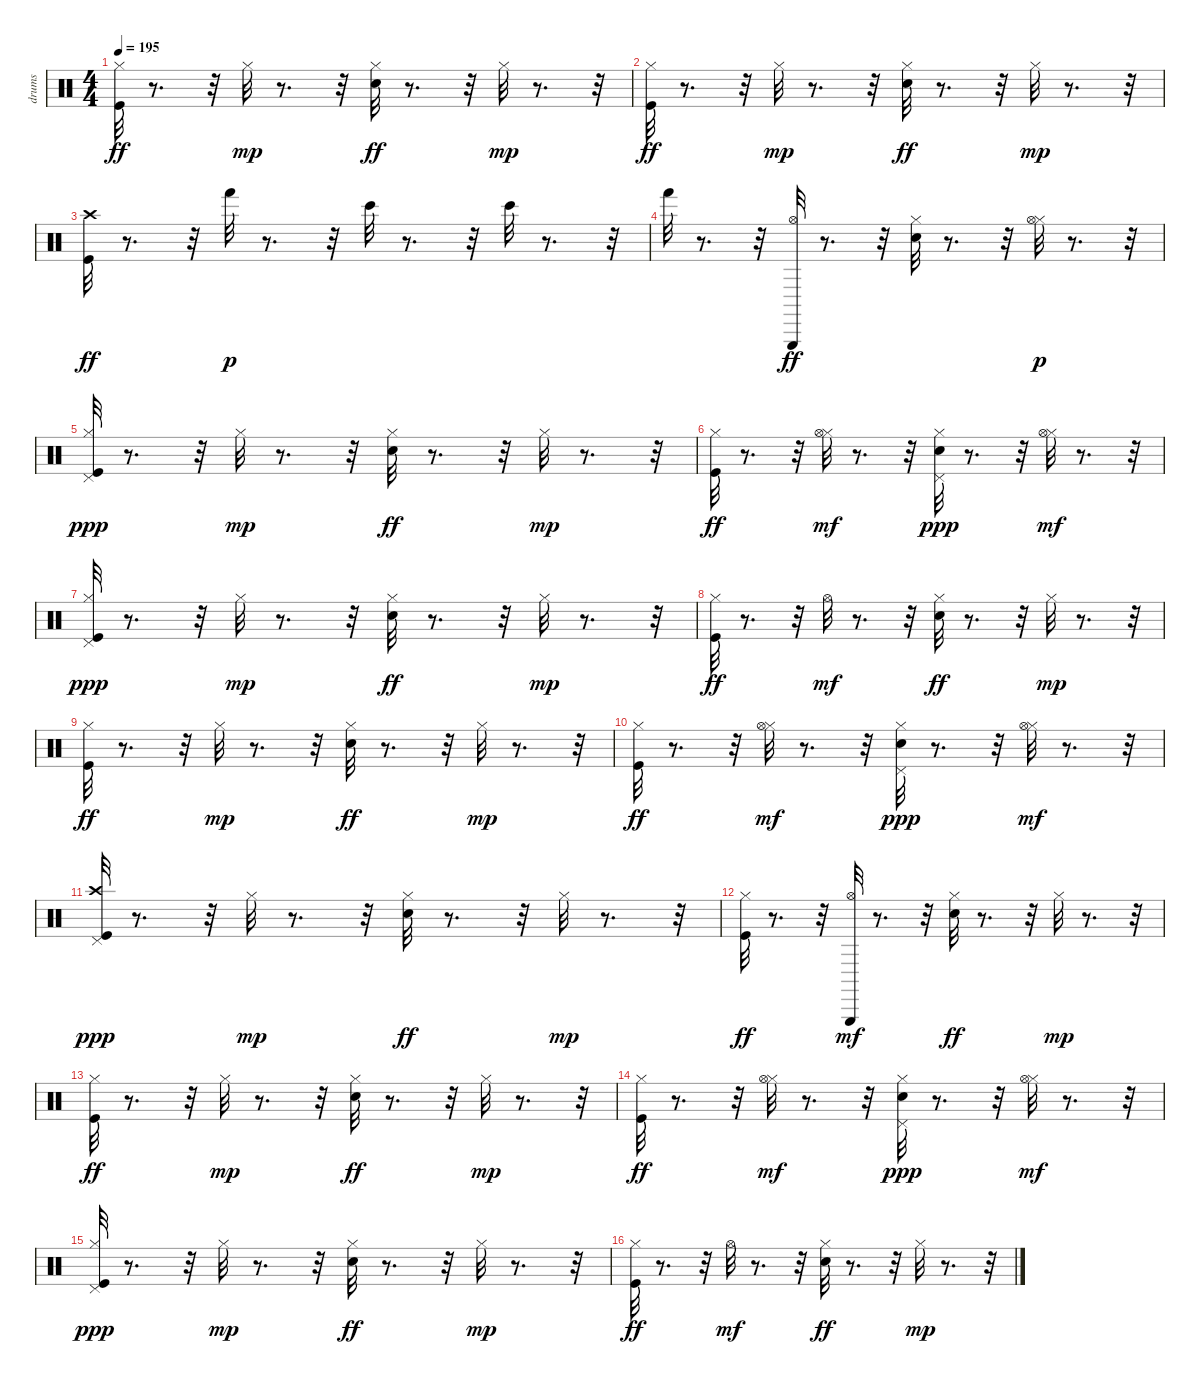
\track ("drums" "drums") {instrument percussion}
\staff {score}
\articulation defaults
\ts (4 4)
\tempo 195
\clef neutral
\ks c
("Kick (hit)" "Hi-Hat (closed)").32{dy ff} r.8{d} r.32 "Hi-Hat (closed)".32{dy mp} r.8{d} r.32 ("Snare (hit) 2" "Hi-Hat (closed)").32{dy ff} r.8{d} r.32 "Hi-Hat (closed)".32{dy mp} r.8{d} r.32 |
("Kick (hit)" "Hi-Hat (closed)").32{dy ff} r.8{d} r.32 "Hi-Hat (closed)".32{dy mp} r.8{d} r.32 ("Hi-Hat (closed)" "Snare (hit) 2").32{dy ff} r.8{d} r.32 "Hi-Hat (closed)".32{dy mp} r.8{d} r.32 |
("Crash high (hit)" "Kick (hit)").32{dy ff} r.8{d} r.32 "Hand (hit)".32{dy p} r.8{d} r.32 "Bongo High (hit)".32 r.8{d} r.32 "Bongo High (hit)".32 r.8{d} r.32 |
"Hand (hit)".32 r.8{d} r.32 ("Triangle (hit)" "Hi-Hat (open)").32{dy ff} r.8{d} r.32 ("Snare (hit) 2" "Hi-Hat (closed)").32 r.8{d} r.32 ("Hi-Hat (closed)" "Hi-Hat (open)").32{dy p} r.8{d} r.32 |
("Hi-Hat (closed)" "Kick (hit)" "Pedal Hi-Hat (hit)").32{dy ppp} r.8{d} r.32 "Hi-Hat (closed)".32{dy mp} r.8{d} r.32 ("Hi-Hat (closed)" "Snare (hit) 2").32{dy ff} r.8{d} r.32 "Hi-Hat (closed)".32{dy mp} r.8{d} r.32 |
("Hi-Hat (closed)" "Kick (hit)").32{dy ff} r.8{d} r.32 ("Hi-Hat (closed)" "Hi-Hat (open)").32{dy mf} r.8{d} r.32 ("Snare (hit) 2" "Hi-Hat (closed)" "Pedal Hi-Hat (hit)").32{dy ppp} r.8{d} r.32 ("Hi-Hat (closed)" "Hi-Hat (open)").32{dy mf} r.8{d} r.32 |
("Kick (hit)" "Hi-Hat (closed)" "Pedal Hi-Hat (hit)").32{dy ppp} r.8{d} r.32 "Hi-Hat (closed)".32{dy mp} r.8{d} r.32 ("Snare (hit) 2" "Hi-Hat (closed)").32{dy ff} r.8{d} r.32 "Hi-Hat (closed)".32{dy mp} r.8{d} r.32 |
("Hi-Hat (closed)" "Kick (hit)").32{dy ff} r.8{d} r.32 "Hi-Hat (open)".32{dy mf} r.8{d} r.32 ("Snare (hit) 2" "Hi-Hat (closed)").32{dy ff} r.8{d} r.32 "Hi-Hat (closed)".32{dy mp} r.8{d} r.32 |
("Hi-Hat (closed)" "Kick (hit)").32{dy ff} r.8{d} r.32 "Hi-Hat (closed)".32{dy mp} r.8{d} r.32 ("Hi-Hat (closed)" "Snare (hit) 2").32{dy ff} r.8{d} r.32 "Hi-Hat (closed)".32{dy mp} r.8{d} r.32 |
("Kick (hit)" "Hi-Hat (closed)").32{dy ff} r.8{d} r.32 ("Hi-Hat (closed)" "Hi-Hat (open)").32{dy mf} r.8{d} r.32 ("Hi-Hat (closed)" "Snare (hit) 2" "Pedal Hi-Hat (hit)").32{dy ppp} r.8{d} r.32 ("Hi-Hat (closed)" "Hi-Hat (open)").32{dy mf} r.8{d} r.32 |
("Kick (hit)" "Crash high (hit)" "Pedal Hi-Hat (hit)").32{dy ppp} r.8{d} r.32 "Hi-Hat (closed)".32{dy mp} r.8{d} r.32 ("Snare (hit) 2" "Hi-Hat (closed)").32{dy ff} r.8{d} r.32 "Hi-Hat (closed)".32{dy mp} r.8{d} r.32 |
("Hi-Hat (closed)" "Kick (hit)").32{dy ff} r.8{d} r.32 ("Triangle (hit)" "Hi-Hat (open)").32{dy mf} r.8{d} r.32 ("Snare (hit) 2" "Hi-Hat (closed)").32{dy ff} r.8{d} r.32 "Hi-Hat (closed)".32{dy mp} r.8{d} r.32 |
("Hi-Hat (closed)" "Kick (hit)").32{dy ff} r.8{d} r.32 "Hi-Hat (closed)".32{dy mp} r.8{d} r.32 ("Snare (hit) 2" "Hi-Hat (closed)").32{dy ff} r.8{d} r.32 "Hi-Hat (closed)".32{dy mp} r.8{d} r.32 |
("Hi-Hat (closed)" "Kick (hit)").32{dy ff} r.8{d} r.32 ("Hi-Hat (closed)" "Hi-Hat (open)").32{dy mf} r.8{d} r.32 ("Hi-Hat (closed)" "Snare (hit) 2" "Pedal Hi-Hat (hit)").32{dy ppp} r.8{d} r.32 ("Hi-Hat (closed)" "Hi-Hat (open)").32{dy mf} r.8{d} r.32 |
("Hi-Hat (closed)" "Kick (hit)" "Pedal Hi-Hat (hit)").32{dy ppp} r.8{d} r.32 "Hi-Hat (closed)".32{dy mp} r.8{d} r.32 ("Hi-Hat (closed)" "Snare (hit) 2").32{dy ff} r.8{d} r.32 "Hi-Hat (closed)".32{dy mp} r.8{d} r.32 |
("Hi-Hat (closed)" "Kick (hit)").32{dy ff} r.8{d} r.32 "Hi-Hat (open)".32{dy mf} r.8{d} r.32 ("Snare (hit) 2" "Hi-Hat (closed)").32{dy ff} r.8{d} r.32 "Hi-Hat (closed)".32{dy mp} r.8{d} r.32
